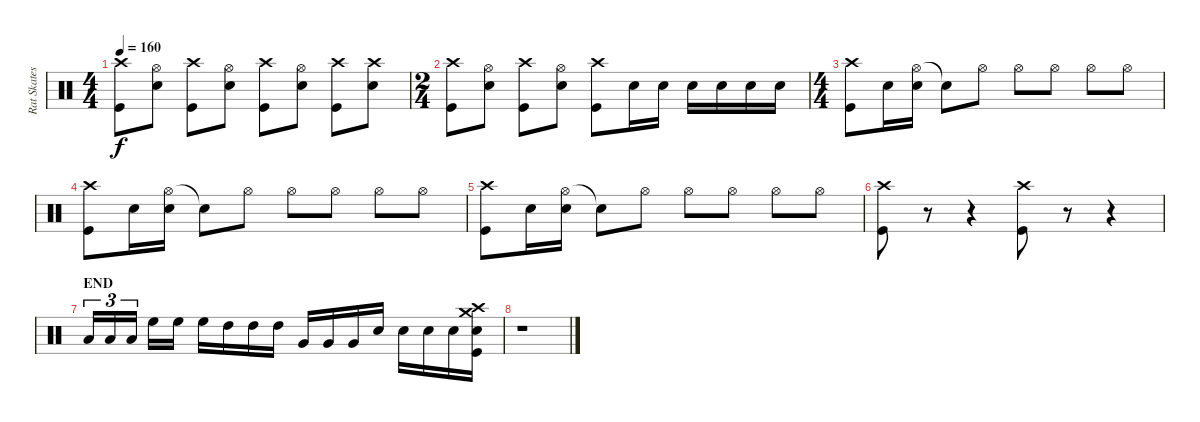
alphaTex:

\track ("Rat Skates" "Rat Skates") {instrument percussion}
\staff {score}
\articulation defaults
\ts (4 4)
\tempo 160
\clef neutral
\ks c
("Crash high (hit)" "Kick (hit)").8{dy f} ("Hi-Hat (open)" "Snare (hit) 2").8 ("Crash high (hit)" "Kick (hit)").8 ("Hi-Hat (open)" "Snare (hit) 2").8 ("Crash high (hit)" "Kick (hit)").8 ("Hi-Hat (open)" "Snare (hit) 2").8 ("Crash high (hit)" "Kick (hit)").8 ("Crash high (hit)" "Snare (hit) 2").8 |
\ts (2 4)
("Crash high (hit)" "Kick (hit)").8 ("Hi-Hat (open)" "Snare (hit) 2").8 ("Crash high (hit)" "Kick (hit)").8 ("Hi-Hat (open)" "Snare (hit) 2").8 ("Crash high (hit)" "Kick (hit)").8 "Snare (hit) 2".16 "Snare (hit) 2".16 "Snare (hit) 2".16 "Snare (hit) 2".16 "Snare (hit) 2".16 "Snare (hit) 2".16 |
\ts (4 4)
("Kick (hit)" "Crash high (hit)").8 "Snare (hit) 2".16 ("Hi-Hat (open)" "Snare (hit) 2").16 "Snare (hit)"{t}.8 "Hi-Hat (open)".8 "Hi-Hat (open)".8 "Hi-Hat (open)".8 "Hi-Hat (open)".8 "Hi-Hat (open)".8 |
("Kick (hit)" "Crash high (hit)").8 "Snare (hit) 2".16 ("Hi-Hat (open)" "Snare (hit) 2").16 "Snare (hit)"{t}.8 "Hi-Hat (open)".8 "Hi-Hat (open)".8 "Hi-Hat (open)".8 "Hi-Hat (open)".8 "Hi-Hat (open)".8 |
("Kick (hit)" "Crash high (hit)").8 "Snare (hit) 2".16 ("Hi-Hat (open)" "Snare (hit) 2").16 "Snare (hit)"{t}.8 "Hi-Hat (open)".8 "Hi-Hat (open)".8 "Hi-Hat (open)".8 "Hi-Hat (open)".8 "Hi-Hat (open)".8 |
("Crash high (hit)" "Kick (hit)").8 r.8 r.4 ("Crash high (hit)" "Kick (hit)").8 r.8 r.4 |
\section ("" "END")
"Low Tom (hit)".16{tu (3 2)} "Low Tom (hit)".16{tu (3 2)} "Low Tom (hit)".16{tu (3 2)} "High Floor Tom (hit)".16 "High Floor Tom (hit)".16 "High Floor Tom (hit)".16 "High Tom (hit)".16 "High Tom (hit)".16 "High Tom (hit)".16 "Very Low Tom (hit)".16 "Very Low Tom (hit)".16 "Very Low Tom (hit)".16 "Snare (hit) 2".16 "Snare (hit) 2".16 "Snare (hit) 2".16 "Snare (hit) 2".16 ("Crash medium (hit)" "Crash high (hit)" "Snare (hit) 2" "Kick (hit)").16 |
r.1
